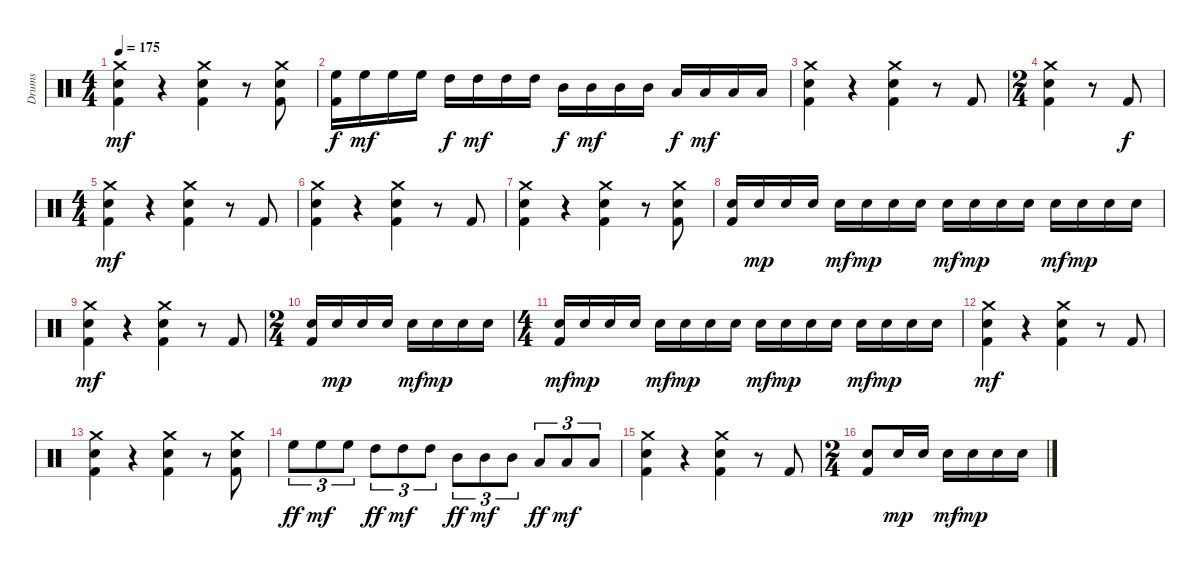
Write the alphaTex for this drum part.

\track ("Drums" "Drums") {instrument percussion}
\staff {score}
\articulation defaults
\ts (4 4)
\tempo 175
\clef neutral
\ks c
("Crash medium (hit)" "Electric Snare (hit)" "Kick (hit) 2").4{dy mf} r.4 ("Crash medium (hit)" "Electric Snare (hit)" "Kick (hit) 2").4 r.8 ("Crash medium (hit)" "Electric Snare (hit)" "Kick (hit) 2").8 |
("High Floor Tom (hit)" "Kick (hit) 2").16{dy f} "High Floor Tom (hit)".16{dy mf} "High Floor Tom (hit)".16 "High Floor Tom (hit)".16 "High Tom (hit)".16{dy f} "High Tom (hit)".16{dy mf} "High Tom (hit)".16 "High Tom (hit)".16 "Mid Tom (hit)".16{dy f} "Mid Tom (hit)".16{dy mf} "Mid Tom (hit)".16 "Mid Tom (hit)".16 "Low Tom (hit)".16{dy f} "Low Tom (hit)".16{dy mf} "Low Tom (hit)".16 "Low Tom (hit)".16 |
("Crash medium (hit)" "Electric Snare (hit)" "Kick (hit) 2").4 r.4 ("Crash medium (hit)" "Electric Snare (hit)" "Kick (hit) 2").4 r.8 "Kick (hit) 2".8 |
\ts (2 4)
("Crash medium (hit)" "Electric Snare (hit)" "Kick (hit) 2").4 r.8 "Kick (hit) 2".8{dy f} |
\ts (4 4)
("Crash medium (hit)" "Electric Snare (hit)" "Kick (hit) 2").4{dy mf} r.4 ("Crash medium (hit)" "Electric Snare (hit)" "Kick (hit) 2").4 r.8 "Kick (hit) 2".8 |
("Crash medium (hit)" "Electric Snare (hit)" "Kick (hit) 2").4 r.4 ("Crash medium (hit)" "Electric Snare (hit)" "Kick (hit) 2").4 r.8 "Kick (hit) 2".8 |
("Crash medium (hit)" "Electric Snare (hit)" "Kick (hit) 2").4 r.4 ("Crash medium (hit)" "Electric Snare (hit)" "Kick (hit) 2").4 r.8 ("Crash medium (hit)" "Electric Snare (hit)" "Kick (hit) 2").8 |
("Electric Snare (hit)" "Kick (hit) 2").16 "Electric Snare (hit)".16{dy mp} "Electric Snare (hit)".16 "Electric Snare (hit)".16 "Electric Snare (hit)".16{dy mf} "Electric Snare (hit)".16{dy mp} "Electric Snare (hit)".16 "Electric Snare (hit)".16 "Electric Snare (hit)".16{dy mf} "Electric Snare (hit)".16{dy mp} "Electric Snare (hit)".16 "Electric Snare (hit)".16 "Electric Snare (hit)".16{dy mf} "Electric Snare (hit)".16{dy mp} "Electric Snare (hit)".16 "Electric Snare (hit)".16 |
("Crash medium (hit)" "Electric Snare (hit)" "Kick (hit) 2").4{dy mf} r.4 ("Crash medium (hit)" "Electric Snare (hit)" "Kick (hit) 2").4 r.8 "Kick (hit) 2".8 |
\ts (2 4)
("Electric Snare (hit)" "Kick (hit) 2").16 "Electric Snare (hit)".16{dy mp} "Electric Snare (hit)".16 "Electric Snare (hit)".16 "Electric Snare (hit)".16{dy mf} "Electric Snare (hit)".16{dy mp} "Electric Snare (hit)".16 "Electric Snare (hit)".16 |
\ts (4 4)
("Electric Snare (hit)" "Kick (hit) 2").16{dy mf} "Electric Snare (hit)".16{dy mp} "Electric Snare (hit)".16 "Electric Snare (hit)".16 "Electric Snare (hit)".16{dy mf} "Electric Snare (hit)".16{dy mp} "Electric Snare (hit)".16 "Electric Snare (hit)".16 "Electric Snare (hit)".16{dy mf} "Electric Snare (hit)".16{dy mp} "Electric Snare (hit)".16 "Electric Snare (hit)".16 "Electric Snare (hit)".16{dy mf} "Electric Snare (hit)".16{dy mp} "Electric Snare (hit)".16 "Electric Snare (hit)".16 |
("Crash medium (hit)" "Electric Snare (hit)" "Kick (hit) 2").4{dy mf} r.4 ("Crash medium (hit)" "Electric Snare (hit)" "Kick (hit) 2").4 r.8 "Kick (hit) 2".8 |
("Crash medium (hit)" "Electric Snare (hit)" "Kick (hit) 2").4 r.4 ("Crash medium (hit)" "Electric Snare (hit)" "Kick (hit) 2").4 r.8 ("Crash medium (hit)" "Electric Snare (hit)" "Kick (hit) 2").8 |
"High Floor Tom (hit)".8{tu (3 2) dy ff} "High Floor Tom (hit)".8{tu (3 2) dy mf} "High Floor Tom (hit)".8{tu (3 2)} "High Tom (hit)".8{tu (3 2) dy ff} "High Tom (hit)".8{tu (3 2) dy mf} "High Tom (hit)".8{tu (3 2)} "Mid Tom (hit)".8{tu (3 2) dy ff} "Mid Tom (hit)".8{tu (3 2) dy mf} "Mid Tom (hit)".8{tu (3 2)} "Low Tom (hit)".8{tu (3 2) dy ff} "Low Tom (hit)".8{tu (3 2) dy mf} "Low Tom (hit)".8{tu (3 2)} |
("Crash medium (hit)" "Electric Snare (hit)" "Kick (hit) 2").4 r.4 ("Crash medium (hit)" "Electric Snare (hit)" "Kick (hit) 2").4 r.8 "Kick (hit) 2".8 |
\ts (2 4)
("Electric Snare (hit)" "Kick (hit) 2").8 "Electric Snare (hit)".16{dy mp} "Electric Snare (hit)".16 "Electric Snare (hit)".16{dy mf} "Electric Snare (hit)".16{dy mp} "Electric Snare (hit)".16 "Electric Snare (hit)".16
